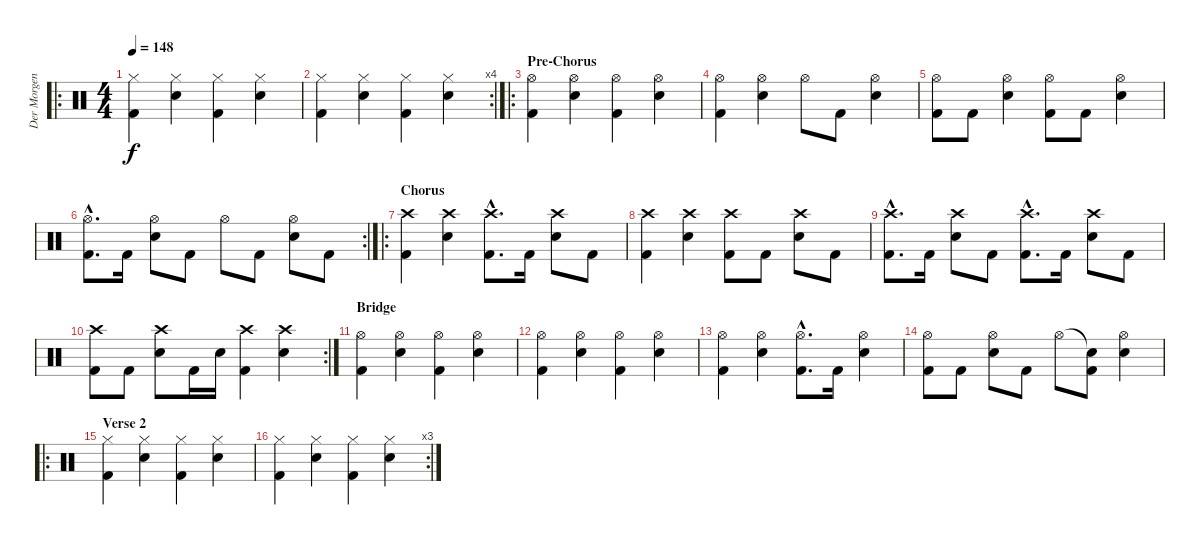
\track ("Der Morgenstern" "Der Morgen") {instrument percussion}
\staff {score}
\articulation defaults
\ro
\ts (4 4)
\tempo 148
\clef neutral
\ks c
("Hi-Hat (closed)" "Kick (hit) 2").4{dy f} ("Hi-Hat (closed)" "Snare (hit) 2").4 ("Hi-Hat (closed)" "Kick (hit) 2").4 ("Hi-Hat (closed)" "Snare (hit) 2").4 |
\rc 4
("Hi-Hat (closed)" "Kick (hit) 2").4 ("Hi-Hat (closed)" "Snare (hit) 2").4 ("Hi-Hat (closed)" "Kick (hit) 2").4 ("Hi-Hat (closed)" "Snare (hit) 2").4 |
\ro
\section ("" "Pre-Chorus")
("Hi-Hat (open)" "Kick (hit) 2").4 ("Hi-Hat (open)" "Snare (hit) 2").4 ("Hi-Hat (open)" "Kick (hit) 2").4 ("Hi-Hat (open)" "Snare (hit) 2").4 |
("Hi-Hat (open)" "Kick (hit) 2").4 ("Hi-Hat (open)" "Snare (hit) 2").4 "Hi-Hat (open)".8 "Kick (hit) 2".8 ("Hi-Hat (open)" "Snare (hit) 2").4 |
("Kick (hit) 2" "Hi-Hat (open)").8 "Kick (hit) 2".8 ("Snare (hit) 2" "Hi-Hat (open)").4 ("Kick (hit) 2" "Hi-Hat (open)").8 "Kick (hit) 2".8 ("Snare (hit) 2" "Hi-Hat (open)").4 |
\rc 2
("Kick (hit) 2"{hac} "Hi-Hat (open)"{hac}).8{d} "Kick (hit) 2".16 ("Snare (hit) 2" "Hi-Hat (open)").8 "Kick (hit) 2".8 "Hi-Hat (open)".8 "Kick (hit) 2".8 ("Snare (hit) 2" "Hi-Hat (open)").8 "Kick (hit) 2".8 |
\ro
\section ("" "Chorus")
("Crash high (hit)" "Kick (hit) 2").4 ("Crash high (hit)" "Snare (hit) 2").4 ("Crash high (hit)"{hac} "Kick (hit) 2"{hac}).8{d} "Kick (hit) 2".16 ("Crash high (hit)" "Snare (hit) 2").8 "Kick (hit) 2".8 |
("Crash high (hit)" "Kick (hit) 2").4 ("Crash high (hit)" "Snare (hit) 2").4 ("Crash high (hit)" "Kick (hit) 2").8 "Kick (hit) 2".8 ("Crash high (hit)" "Snare (hit) 2").8 "Kick (hit) 2".8 |
("Crash high (hit)"{hac} "Kick (hit) 2"{hac}).8{d} "Kick (hit) 2".16 ("Crash high (hit)" "Snare (hit) 2").8 "Kick (hit) 2".8 ("Crash high (hit)"{hac} "Kick (hit) 2"{hac}).8{d} "Kick (hit) 2".16 ("Crash high (hit)" "Snare (hit) 2").8 "Kick (hit) 2".8 |
\rc 2
("Kick (hit) 2" "Crash high (hit)").8 "Kick (hit) 2".8 ("Snare (hit) 2" "Crash high (hit)").8 "Kick (hit) 2".16 "Snare (hit) 2".16 ("Kick (hit) 2" "Crash high (hit)").4 ("Snare (hit) 2" "Crash high (hit)").4 |
\section ("" "Bridge")
("Hi-Hat (open)" "Kick (hit) 2").4 ("Snare (hit) 2" "Hi-Hat (open)").4 ("Hi-Hat (open)" "Kick (hit) 2").4 ("Hi-Hat (open)" "Snare (hit) 2").4 |
("Hi-Hat (open)" "Kick (hit) 2").4 ("Snare (hit) 2" "Hi-Hat (open)").4 ("Hi-Hat (open)" "Kick (hit) 2").4 ("Hi-Hat (open)" "Snare (hit) 2").4 |
("Hi-Hat (open)" "Kick (hit) 2").4 ("Snare (hit) 2" "Hi-Hat (open)").4 ("Hi-Hat (open)"{hac} "Kick (hit) 2"{hac}).8{d} "Kick (hit) 2".16 ("Hi-Hat (open)" "Snare (hit) 2").4 |
("Hi-Hat (open)" "Kick (hit) 2").8 "Kick (hit) 2".8 ("Hi-Hat (open)" "Snare (hit) 2").8 "Kick (hit) 2".8 "Hi-Hat (open)".8 ("Snare (hit)"{t} "Kick (hit) 2").8 ("Hi-Hat (open)" "Snare (hit) 2").4 |
\ro
\section ("" "Verse 2")
("Hi-Hat (closed)" "Kick (hit) 2").4 ("Hi-Hat (closed)" "Snare (hit) 2").4 ("Hi-Hat (closed)" "Kick (hit) 2").4 ("Hi-Hat (closed)" "Snare (hit) 2").4 |
\rc 3
("Hi-Hat (closed)" "Kick (hit) 2").4 ("Hi-Hat (closed)" "Snare (hit) 2").4 ("Hi-Hat (closed)" "Kick (hit) 2").4 ("Hi-Hat (closed)" "Snare (hit) 2").4
